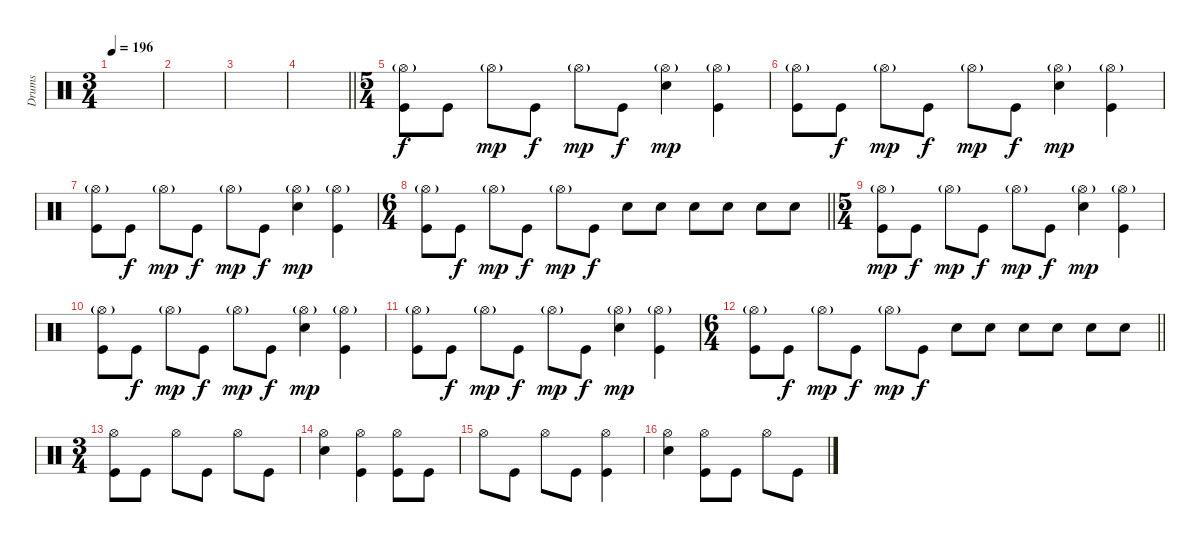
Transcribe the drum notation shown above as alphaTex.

\track ("Drums" "Drums") {instrument percussion}
\staff
\articulation defaults
\ts (3 4)
\tempo 196
\clef neutral
\ks c
|
|
|
\barLineRight lightlight
|
\ts (5 4)
\section ("" "")
("Hi-Hat (open)"{g} "Kick (hit)").8 "Kick (hit)".8{dy f} "Hi-Hat (open)"{g}.8{dy mp} "Kick (hit)".8{dy f} "Hi-Hat (open)"{g}.8{dy mp} "Kick (hit)".8{dy f} ("Hi-Hat (open)"{g} "Electric Snare (hit)").4{dy mp} ("Hi-Hat (open)"{g} "Kick (hit)").4 |
("Hi-Hat (open)"{g} "Kick (hit)").8 "Kick (hit)".8{dy f} "Hi-Hat (open)"{g}.8{dy mp} "Kick (hit)".8{dy f} "Hi-Hat (open)"{g}.8{dy mp} "Kick (hit)".8{dy f} ("Hi-Hat (open)"{g} "Electric Snare (hit)").4{dy mp} ("Hi-Hat (open)"{g} "Kick (hit)").4 |
("Hi-Hat (open)"{g} "Kick (hit)").8 "Kick (hit)".8{dy f} "Hi-Hat (open)"{g}.8{dy mp} "Kick (hit)".8{dy f} "Hi-Hat (open)"{g}.8{dy mp} "Kick (hit)".8{dy f} ("Hi-Hat (open)"{g} "Electric Snare (hit)").4{dy mp} ("Hi-Hat (open)"{g} "Kick (hit)").4 |
\ts (6 4)
\barLineRight lightlight
("Hi-Hat (open)"{g} "Kick (hit)").8 "Kick (hit)".8{dy f} "Hi-Hat (open)"{g}.8{dy mp} "Kick (hit)".8{dy f} "Hi-Hat (open)"{g}.8{dy mp} "Kick (hit)".8{dy f} "Electric Snare (hit)".8 "Electric Snare (hit)".8 "Electric Snare (hit)".8 "Electric Snare (hit)".8 "Electric Snare (hit)".8 "Electric Snare (hit)".8 |
\ts (5 4)
("Hi-Hat (open)"{g} "Kick (hit)").8{dy mp} "Kick (hit)".8{dy f} "Hi-Hat (open)"{g}.8{dy mp} "Kick (hit)".8{dy f} "Hi-Hat (open)"{g}.8{dy mp} "Kick (hit)".8{dy f} ("Hi-Hat (open)"{g} "Electric Snare (hit)").4{dy mp} ("Hi-Hat (open)"{g} "Kick (hit)").4 |
("Hi-Hat (open)"{g} "Kick (hit)").8 "Kick (hit)".8{dy f} "Hi-Hat (open)"{g}.8{dy mp} "Kick (hit)".8{dy f} "Hi-Hat (open)"{g}.8{dy mp} "Kick (hit)".8{dy f} ("Hi-Hat (open)"{g} "Electric Snare (hit)").4{dy mp} ("Hi-Hat (open)"{g} "Kick (hit)").4 |
("Hi-Hat (open)"{g} "Kick (hit)").8 "Kick (hit)".8{dy f} "Hi-Hat (open)"{g}.8{dy mp} "Kick (hit)".8{dy f} "Hi-Hat (open)"{g}.8{dy mp} "Kick (hit)".8{dy f} ("Hi-Hat (open)"{g} "Electric Snare (hit)").4{dy mp} ("Hi-Hat (open)"{g} "Kick (hit)").4 |
\ts (6 4)
\barLineRight lightlight
("Hi-Hat (open)"{g} "Kick (hit)").8 "Kick (hit)".8{dy f} "Hi-Hat (open)"{g}.8{dy mp} "Kick (hit)".8{dy f} "Hi-Hat (open)"{g}.8{dy mp} "Kick (hit)".8{dy f} "Electric Snare (hit)".8 "Electric Snare (hit)".8 "Electric Snare (hit)".8 "Electric Snare (hit)".8 "Electric Snare (hit)".8 "Electric Snare (hit)".8 |
\ts (3 4)
\section ("" "")
("Hi-Hat (open)" "Kick (hit)").8 "Kick (hit)".8 "Hi-Hat (open)".8 "Kick (hit)".8 "Hi-Hat (open)".8 "Kick (hit)".8 |
("Hi-Hat (open)" "Electric Snare (hit)").4 ("Hi-Hat (open)" "Kick (hit)").4 ("Hi-Hat (open)" "Kick (hit)").8 "Kick (hit)".8 |
"Hi-Hat (open)".8 "Kick (hit)".8 "Hi-Hat (open)".8 "Kick (hit)".8 ("Hi-Hat (open)" "Kick (hit)").4 |
("Hi-Hat (open)" "Electric Snare (hit)").4 ("Hi-Hat (open)" "Kick (hit)").8 "Kick (hit)".8 "Hi-Hat (open)".8 "Kick (hit)".8
